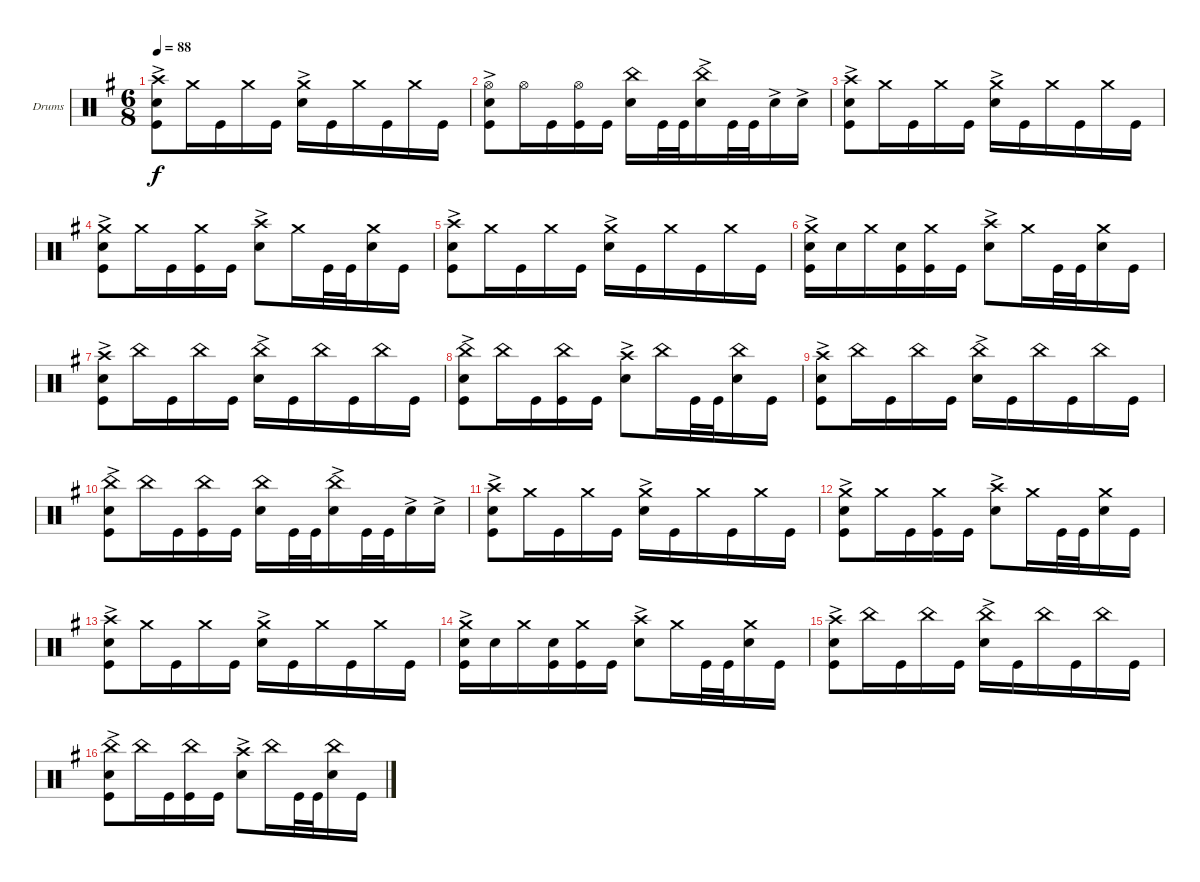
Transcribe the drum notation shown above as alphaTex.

\bracketExtendMode groupsimilarinstruments
\firstSystemTrackNameOrientation horizontal
\otherSystemsTrackNameOrientation horizontal
\track ("Drumkit" "Drums") {instrument percussion}
\staff {score}
\articulation defaults
\ts (6 8)
\tempo 88
\clef neutral
\ks eminor
("Crash high (hit)" "Kick (hit)" "Snare (hit) 2"{ac}).8{dy f} "Crash medium (hit)".16 "Kick (hit)".16 "Crash medium (hit)".16 "Kick (hit)".16 ("Snare (hit) 2"{ac} "Crash medium (hit)").16 "Kick (hit)".16 "Crash medium (hit)".16 "Kick (hit)".16 "Crash medium (hit)".16 "Kick (hit)".16 |
("Kick (hit)" "Hi-Hat (open)" "Snare (hit) 2"{ac}).8 "Hi-Hat (open)".16 "Kick (hit)".16 ("Kick (hit)" "Hi-Hat (open)").16 "Kick (hit)".16 ("Snare (hit) 2" "China (hit)").16 "Kick (hit)".32 "Kick (hit)".32 ("Snare (hit) 2"{ac} "China (hit)").16 "Kick (hit)".32 "Kick (hit)".32 "Snare (hit) 2"{ac}.16 "Snare (hit) 2"{ac}.16 |
("Crash high (hit)" "Kick (hit)" "Snare (hit) 2"{ac}).8 "Crash medium (hit)".16 "Kick (hit)".16 "Crash medium (hit)".16 "Kick (hit)".16 ("Snare (hit) 2"{ac} "Crash medium (hit)").16 "Kick (hit)".16 "Crash medium (hit)".16 "Kick (hit)".16 "Crash medium (hit)".16 "Kick (hit)".16 |
("Kick (hit)" "Crash medium (hit)" "Snare (hit) 2"{ac}).8 "Crash medium (hit)".16 "Kick (hit)".16 ("Kick (hit)" "Crash medium (hit)").16 "Kick (hit)".16 ("Crash high (hit)" "Snare (hit) 2"{ac}).8 "Crash medium (hit)".16 "Kick (hit)".32 "Kick (hit)".32 ("Snare (hit) 2" "Crash medium (hit)").16 "Kick (hit)".16 |
("Crash high (hit)" "Kick (hit)" "Snare (hit) 2"{ac}).8 "Crash medium (hit)".16 "Kick (hit)".16 "Crash medium (hit)".16 "Kick (hit)".16 ("Snare (hit) 2"{ac} "Crash medium (hit)").16 "Kick (hit)".16 "Crash medium (hit)".16 "Kick (hit)".16 "Crash medium (hit)".16 "Kick (hit)".16 |
("Kick (hit)" "Crash medium (hit)" "Snare (hit) 2"{ac}).16 "Snare (hit) 2".16 "Crash medium (hit)".16 ("Kick (hit)" "Snare (hit) 2").16 ("Kick (hit)" "Crash medium (hit)").16 "Kick (hit)".16 ("Crash high (hit)" "Snare (hit) 2"{ac}).8 "Crash medium (hit)".16 "Kick (hit)".32 "Kick (hit)".32 ("Snare (hit) 2" "Crash medium (hit)").16 "Kick (hit)".16 |
("Crash high (hit)" "Kick (hit)" "Snare (hit) 2"{ac}).8 "China (hit)".16 "Kick (hit)".16 "China (hit)".16 "Kick (hit)".16 ("Snare (hit) 2"{ac} "China (hit)").16 "Kick (hit)".16 "China (hit)".16 "Kick (hit)".16 "China (hit)".16 "Kick (hit)".16 |
("Kick (hit)" "Snare (hit) 2"{ac} "China (hit)").8 "China (hit)".16 "Kick (hit)".16 ("Kick (hit)" "China (hit)").16 "Kick (hit)".16 ("Crash high (hit)" "Snare (hit) 2"{ac}).8 "China (hit)".16 "Kick (hit)".32 "Kick (hit)".32 ("Snare (hit) 2" "China (hit)").16 "Kick (hit)".16 |
("Crash high (hit)" "Kick (hit)" "Snare (hit) 2"{ac}).8 "China (hit)".16 "Kick (hit)".16 "China (hit)".16 "Kick (hit)".16 ("Snare (hit) 2"{ac} "China (hit)").16 "Kick (hit)".16 "China (hit)".16 "Kick (hit)".16 "China (hit)".16 "Kick (hit)".16 |
("Kick (hit)" "Snare (hit) 2"{ac} "China (hit)").8 "China (hit)".16 "Kick (hit)".16 ("Kick (hit)" "China (hit)").16 "Kick (hit)".16 ("Snare (hit) 2" "China (hit)").16 "Kick (hit)".32 "Kick (hit)".32 ("Snare (hit) 2"{ac} "China (hit)").16 "Kick (hit)".32 "Kick (hit)".32 "Snare (hit) 2"{ac}.16 "Snare (hit) 2"{ac}.16 |
("Crash high (hit)" "Kick (hit)" "Snare (hit) 2"{ac}).8 "Crash medium (hit)".16 "Kick (hit)".16 "Crash medium (hit)".16 "Kick (hit)".16 ("Snare (hit) 2"{ac} "Crash medium (hit)").16 "Kick (hit)".16 "Crash medium (hit)".16 "Kick (hit)".16 "Crash medium (hit)".16 "Kick (hit)".16 |
("Kick (hit)" "Crash medium (hit)" "Snare (hit) 2"{ac}).8 "Crash medium (hit)".16 "Kick (hit)".16 ("Kick (hit)" "Crash medium (hit)").16 "Kick (hit)".16 ("Crash high (hit)" "Snare (hit) 2"{ac}).8 "Crash medium (hit)".16 "Kick (hit)".32 "Kick (hit)".32 ("Snare (hit) 2" "Crash medium (hit)").16 "Kick (hit)".16 |
("Crash high (hit)" "Kick (hit)" "Snare (hit) 2"{ac}).8 "Crash medium (hit)".16 "Kick (hit)".16 "Crash medium (hit)".16 "Kick (hit)".16 ("Snare (hit) 2"{ac} "Crash medium (hit)").16 "Kick (hit)".16 "Crash medium (hit)".16 "Kick (hit)".16 "Crash medium (hit)".16 "Kick (hit)".16 |
("Kick (hit)" "Crash medium (hit)" "Snare (hit) 2"{ac}).16 "Snare (hit) 2".16 "Crash medium (hit)".16 ("Kick (hit)" "Snare (hit) 2").16 ("Kick (hit)" "Crash medium (hit)").16 "Kick (hit)".16 ("Crash high (hit)" "Snare (hit) 2"{ac}).8 "Crash medium (hit)".16 "Kick (hit)".32 "Kick (hit)".32 ("Snare (hit) 2" "Crash medium (hit)").16 "Kick (hit)".16 |
("Crash high (hit)" "Kick (hit)" "Snare (hit) 2"{ac}).8 "China (hit)".16 "Kick (hit)".16 "China (hit)".16 "Kick (hit)".16 ("Snare (hit) 2"{ac} "China (hit)").16 "Kick (hit)".16 "China (hit)".16 "Kick (hit)".16 "China (hit)".16 "Kick (hit)".16 |
("Kick (hit)" "Snare (hit) 2"{ac} "China (hit)").8 "China (hit)".16 "Kick (hit)".16 ("Kick (hit)" "China (hit)").16 "Kick (hit)".16 ("Crash high (hit)" "Snare (hit) 2"{ac}).8 "China (hit)".16 "Kick (hit)".32 "Kick (hit)".32 ("Snare (hit) 2" "China (hit)").16 "Kick (hit)".16
